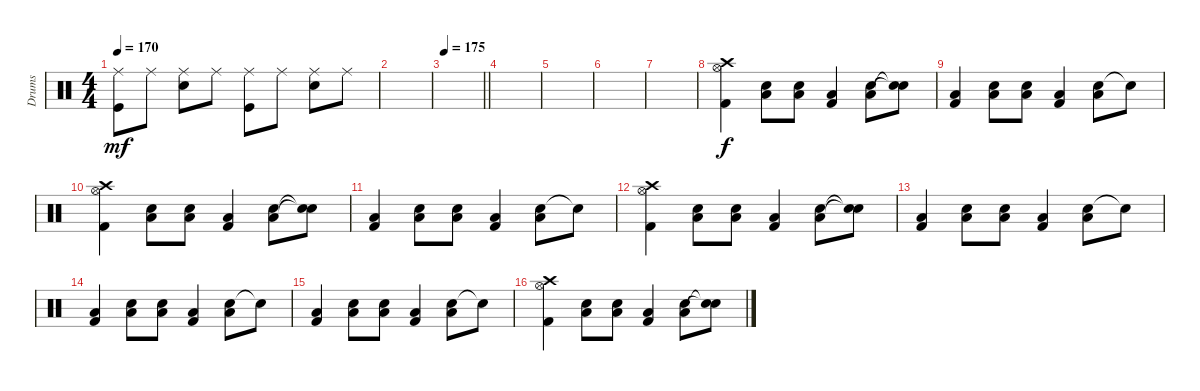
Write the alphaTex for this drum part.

\track ("Drums" "Drums") {instrument percussion}
\staff {score}
\articulation defaults
\ts (4 4)
\tempo 170
\clef neutral
\ks c
("Ride (middle)" "Kick (hit)").8{dy mf} "Ride (middle)".8 ("Ride (middle)" "Snare (hit) 2").8 "Ride (middle)".8 ("Ride (middle)" "Kick (hit)").8 "Ride (middle)".8 ("Ride (middle)" "Snare (hit) 2").8 "Ride (middle)".8 |
|
\tempo 175
\barLineRight lightlight
|
|
|
|
|
("Hi-Hat (open)" "Kick (hit) 2" "Crash high (hit)").4{dy f} ("Snare (hit) 2" "Low Floor Tom (hit)").8 ("Snare (hit) 2" "Low Floor Tom (hit)").8 ("Kick (hit) 2" "Low Floor Tom (hit)").4 ("Snare (hit) 2" "Low Floor Tom (hit)").8 ("Snare (hit)"{t} "Snare (hit)"{t}).8 |
("Kick (hit) 2" "Low Floor Tom (hit)").4 ("Snare (hit) 2" "Low Floor Tom (hit)").8 ("Snare (hit) 2" "Low Floor Tom (hit)").8 ("Kick (hit) 2" "Low Floor Tom (hit)").4 ("Snare (hit) 2" "Low Floor Tom (hit)").8 "Snare (hit)"{t}.8 |
("Hi-Hat (open)" "Kick (hit) 2" "Crash high (hit)").4 ("Snare (hit) 2" "Low Floor Tom (hit)").8 ("Snare (hit) 2" "Low Floor Tom (hit)").8 ("Kick (hit) 2" "Low Floor Tom (hit)").4 ("Snare (hit) 2" "Low Floor Tom (hit)").8 ("Snare (hit)"{t} "Snare (hit)"{t}).8 |
("Kick (hit) 2" "Low Floor Tom (hit)").4 ("Snare (hit) 2" "Low Floor Tom (hit)").8 ("Snare (hit) 2" "Low Floor Tom (hit)").8 ("Kick (hit) 2" "Low Floor Tom (hit)").4 ("Snare (hit) 2" "Low Floor Tom (hit)").8 "Snare (hit)"{t}.8 |
("Hi-Hat (open)" "Kick (hit) 2" "Crash high (hit)").4 ("Snare (hit) 2" "Low Floor Tom (hit)").8 ("Snare (hit) 2" "Low Floor Tom (hit)").8 ("Kick (hit) 2" "Low Floor Tom (hit)").4 ("Snare (hit) 2" "Low Floor Tom (hit)").8 ("Snare (hit)"{t} "Snare (hit)"{t}).8 |
("Kick (hit) 2" "Low Floor Tom (hit)").4 ("Snare (hit) 2" "Low Floor Tom (hit)").8 ("Snare (hit) 2" "Low Floor Tom (hit)").8 ("Kick (hit) 2" "Low Floor Tom (hit)").4 ("Snare (hit) 2" "Low Floor Tom (hit)").8 "Snare (hit)"{t}.8 |
("Kick (hit) 2" "Low Floor Tom (hit)").4 ("Snare (hit) 2" "Low Floor Tom (hit)").8 ("Snare (hit) 2" "Low Floor Tom (hit)").8 ("Kick (hit) 2" "Low Floor Tom (hit)").4 ("Snare (hit) 2" "Low Floor Tom (hit)").8 "Snare (hit)"{t}.8 |
("Kick (hit) 2" "Low Floor Tom (hit)").4 ("Snare (hit) 2" "Low Floor Tom (hit)").8 ("Snare (hit) 2" "Low Floor Tom (hit)").8 ("Kick (hit) 2" "Low Floor Tom (hit)").4 ("Snare (hit) 2" "Low Floor Tom (hit)").8 "Snare (hit)"{t}.8 |
("Hi-Hat (open)" "Kick (hit) 2" "Crash high (hit)").4 ("Snare (hit) 2" "Low Floor Tom (hit)").8 ("Snare (hit) 2" "Low Floor Tom (hit)").8 ("Kick (hit) 2" "Low Floor Tom (hit)").4 ("Snare (hit) 2" "Low Floor Tom (hit)").8 ("Snare (hit)"{t} "Snare (hit)"{t}).8
